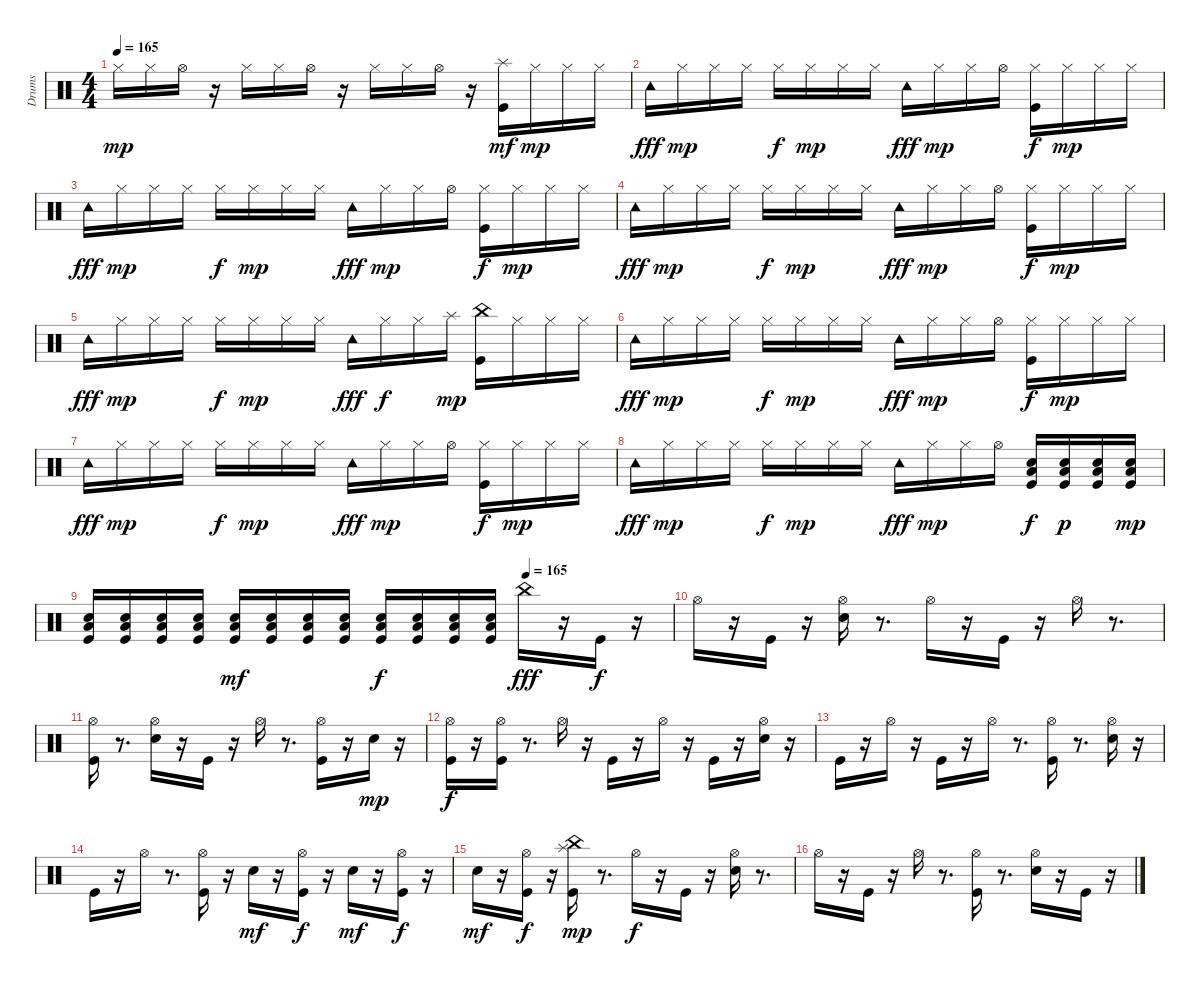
\track ("Drums" "Drums") {instrument percussion}
\staff {score}
\articulation defaults
\ts (4 4)
\tempo 165
\clef neutral
\ks c "Hi-Hat (closed)".16{dy mp} "Hi-Hat (closed)".16 "Hi-Hat (open)".16
r.16 "Hi-Hat (closed)".16 "Hi-Hat (closed)".16 "Hi-Hat (open)".16 r.16 "Hi-Hat (closed)".16 "Hi-Hat (closed)".16 "Hi-Hat (open)".16 r.16 ("Splash (hit)" "Kick (hit)").16{dy mf} "Hi-Hat (closed)".16{dy mp} "Hi-Hat (closed)".16 "Hi-Hat (closed)".16 |
"Tambourine (hit)".16{dy fff} "Hi-Hat (closed)".16{dy mp} "Hi-Hat (closed)".16 "Hi-Hat (closed)".16 "Hi-Hat (closed)".16{dy f} "Hi-Hat (closed)".16{dy mp} "Hi-Hat (closed)".16 "Hi-Hat (closed)".16 "Tambourine (hit)".16{dy fff} "Hi-Hat (closed)".16{dy mp} "Hi-Hat (closed)".16 "Hi-Hat (open)".16 ("Kick (hit)" "Hi-Hat (closed)").16{dy f} "Hi-Hat (closed)".16{dy mp} "Hi-Hat (closed)".16 "Hi-Hat (closed)".16 |
"Tambourine (hit)".16{dy fff} "Hi-Hat (closed)".16{dy mp} "Hi-Hat (closed)".16 "Hi-Hat (closed)".16 "Hi-Hat (closed)".16{dy f} "Hi-Hat (closed)".16{dy mp} "Hi-Hat (closed)".16 "Hi-Hat (closed)".16 "Tambourine (hit)".16{dy fff} "Hi-Hat (closed)".16{dy mp} "Hi-Hat (closed)".16 "Hi-Hat (open)".16 ("Kick (hit)" "Hi-Hat (closed)").16{dy f} "Hi-Hat (closed)".16{dy mp} "Hi-Hat (closed)".16 "Hi-Hat (closed)".16 |
"Tambourine (hit)".16{dy fff} "Hi-Hat (closed)".16{dy mp} "Hi-Hat (closed)".16 "Hi-Hat (closed)".16 "Hi-Hat (closed)".16{dy f} "Hi-Hat (closed)".16{dy mp} "Hi-Hat (closed)".16 "Hi-Hat (closed)".16 "Tambourine (hit)".16{dy fff} "Hi-Hat (closed)".16{dy mp} "Hi-Hat (closed)".16 "Hi-Hat (open)".16 ("Kick (hit)" "Hi-Hat (closed)").16{dy f} "Hi-Hat (closed)".16{dy mp} "Hi-Hat (closed)".16 "Hi-Hat (closed)".16 |
"Tambourine (hit)".16{dy fff} "Hi-Hat (closed)".16{dy mp} "Hi-Hat (closed)".16 "Hi-Hat (closed)".16 "Hi-Hat (closed)".16{dy f} "Hi-Hat (closed)".16{dy mp} "Hi-Hat (closed)".16 "Hi-Hat (closed)".16 "Tambourine (hit)".16{dy fff} "Hi-Hat (closed)".16{dy f} "Hi-Hat (closed)".16 "Splash (hit)".16{dy mp} ("China (hit)" "Kick (hit)").16 "Hi-Hat (closed)".16 "Hi-Hat (closed)".16 "Hi-Hat (closed)".16 |
"Tambourine (hit)".16{dy fff} "Hi-Hat (closed)".16{dy mp} "Hi-Hat (closed)".16 "Hi-Hat (closed)".16 "Hi-Hat (closed)".16{dy f} "Hi-Hat (closed)".16{dy mp} "Hi-Hat (closed)".16 "Hi-Hat (closed)".16 "Tambourine (hit)".16{dy fff} "Hi-Hat (closed)".16{dy mp} "Hi-Hat (closed)".16 "Hi-Hat (open)".16 ("Kick (hit)" "Hi-Hat (closed)").16{dy f} "Hi-Hat (closed)".16{dy mp} "Hi-Hat (closed)".16 "Hi-Hat (closed)".16 |
"Tambourine (hit)".16{dy fff} "Hi-Hat (closed)".16{dy mp} "Hi-Hat (closed)".16 "Hi-Hat (closed)".16 "Hi-Hat (closed)".16{dy f} "Hi-Hat (closed)".16{dy mp} "Hi-Hat (closed)".16 "Hi-Hat (closed)".16 "Tambourine (hit)".16{dy fff} "Hi-Hat (closed)".16{dy mp} "Hi-Hat (closed)".16 "Hi-Hat (open)".16 ("Kick (hit)" "Hi-Hat (closed)").16{dy f} "Hi-Hat (closed)".16{dy mp} "Hi-Hat (closed)".16 "Hi-Hat (closed)".16 |
"Tambourine (hit)".16{dy fff} "Hi-Hat (closed)".16{dy mp} "Hi-Hat (closed)".16 "Hi-Hat (closed)".16 "Hi-Hat (closed)".16{dy f} "Hi-Hat (closed)".16{dy mp} "Hi-Hat (closed)".16 "Hi-Hat (closed)".16 "Tambourine (hit)".16{dy fff} "Hi-Hat (closed)".16{dy mp} "Hi-Hat (closed)".16 "Hi-Hat (open)".16 ("Electric Snare (hit)" "Low Floor Tom (hit)" "Kick (hit)").16{dy f} ("Low Floor Tom (hit)" "Electric Snare (hit)" "Kick (hit)").16{dy p} ("Low Floor Tom (hit)" "Electric Snare (hit)" "Kick (hit)").16 ("Low Floor Tom (hit)" "Electric Snare (hit)" "Kick (hit)").16{dy mp} |
\tempo (165 0.75)
("Low Floor Tom (hit)" "Electric Snare (hit)" "Kick (hit)").16 ("Low Floor Tom (hit)" "Electric Snare (hit)" "Kick (hit)").16 ("Low Floor Tom (hit)" "Electric Snare (hit)" "Kick (hit)").16 ("Low Floor Tom (hit)" "Electric Snare (hit)" "Kick (hit)").16 ("Low Floor Tom (hit)" "Electric Snare (hit)" "Kick (hit)").16{dy mf} ("Low Floor Tom (hit)" "Electric Snare (hit)" "Kick (hit)").16 ("Low Floor Tom (hit)" "Electric Snare (hit)" "Kick (hit)").16 ("Low Floor Tom (hit)" "Electric Snare (hit)" "Kick (hit)").16 ("Low Floor Tom (hit)" "Electric Snare (hit)" "Kick (hit)").16{dy f} ("Low Floor Tom (hit)" "Electric Snare (hit)" "Kick (hit)").16 ("Low Floor Tom (hit)" "Electric Snare (hit)" "Kick (hit)").16 ("Low Floor Tom (hit)" "Electric Snare (hit)" "Kick (hit)").16 "China (hit)".16{dy fff} r.16 "Kick (hit)".16{dy f} r.16 |
"Hi-Hat (open)".16 r.16 "Kick (hit)".16 r.16 ("Hi-Hat (open)" "Electric Snare (hit)").16 r.8{d} "Hi-Hat (open)".16 r.16 "Kick (hit)".16 r.16 "Hi-Hat (open)".16 r.8{d} |
("Kick (hit)" "Hi-Hat (open)").16 r.8{d} ("Electric Snare (hit)" "Hi-Hat (open)").16 r.16 "Kick (hit)".16 r.16 "Hi-Hat (open)".16 r.8{d} ("Kick (hit)" "Hi-Hat (open)").16 r.16 "Electric Snare (hit)".16{dy mp} r.16 |
("Hi-Hat (open)" "Kick (hit)").16{dy f} r.16 ("Hi-Hat (open)" "Kick (hit)").16 r.8{d} "Hi-Hat (open)".16 r.16 "Kick (hit)".16 r.16 "Hi-Hat (open)".16 r.16 "Kick (hit)".16 r.16 ("Electric Snare (hit)" "Hi-Hat (open)").16 r.16 |
"Kick (hit)".16 r.16 "Hi-Hat (open)".16 r.16 "Kick (hit)".16 r.16 "Hi-Hat (open)".16 r.8{d} ("Hi-Hat (open)" "Kick (hit)").16 r.8{d} ("Hi-Hat (open)" "Electric Snare (hit)").16 r.16 |
"Kick (hit)".16 r.16 "Hi-Hat (open)".16 r.8{d} ("Kick (hit)" "Hi-Hat (open)").16 r.16 "Electric Snare (hit)".16{dy mf} r.16 ("Kick (hit)" "Hi-Hat (open)").16{dy f} r.16 "Electric Snare (hit)".16{dy mf} r.16 ("Kick (hit)" "Hi-Hat (open)").16{dy f} r.16 |
"Electric Snare (hit)".16{dy mf} r.16 ("Hi-Hat (open)" "Kick (hit)").16{dy f} r.16 ("Splash (hit)" "China (hit)" "Kick (hit)").16{dy mp} r.8{d} "Hi-Hat (open)".16{dy f} r.16 "Kick (hit)".16 r.16 ("Electric Snare (hit)" "Hi-Hat (open)").16 r.8{d} |
"Hi-Hat (open)".16 r.16 "Kick (hit)".16 r.16 "Hi-Hat (open)".16 r.8{d} ("Kick (hit)" "Hi-Hat (open)").16 r.8{d} ("Electric Snare (hit)" "Hi-Hat (open)").16 r.16 "Kick (hit)".16 r.16
